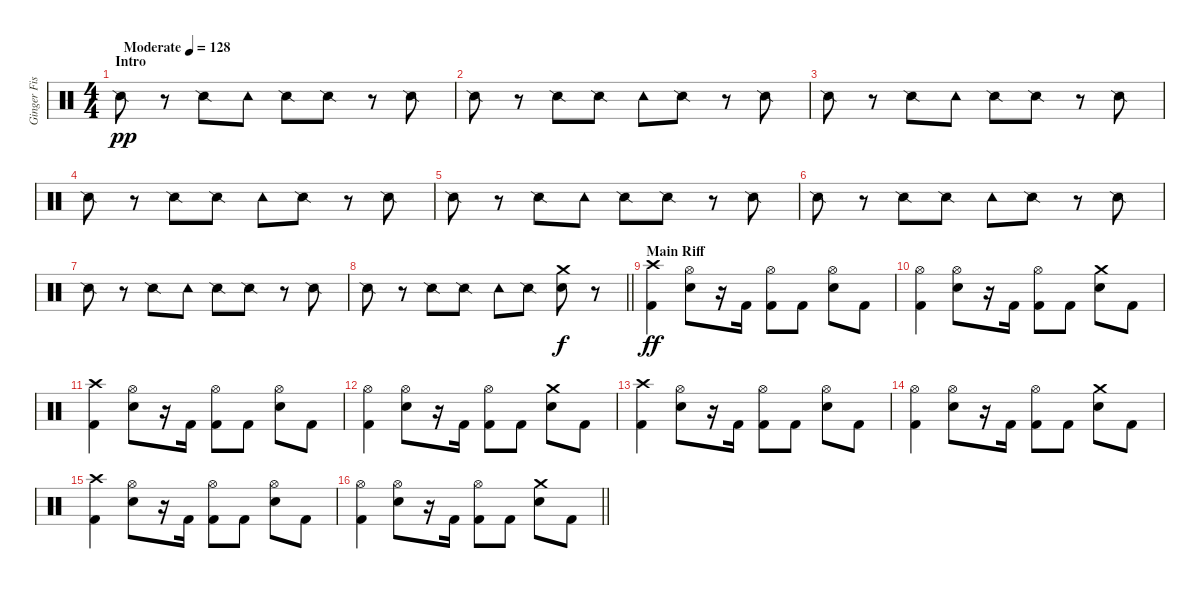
\track ("Ginger Fish" "Ginger Fis") {instrument percussion}
\staff {score}
\articulation defaults
\ts (4 4)
\section ("" "Intro")
\tempo (128 "Moderate")
\clef neutral
\ks c "Snare (side stick) 2".8{dy pp}
r.8 "Snare (side stick) 2".8 "Tambourine (hit)".8 "Snare (side stick) 2".8 "Snare (side stick) 2".8 r.8 "Snare (side stick) 2".8 |
"Snare (side stick) 2".8 r.8 "Snare (side stick) 2".8 "Snare (side stick) 2".8 "Tambourine (hit)".8 "Snare (side stick) 2".8 r.8 "Snare (side stick) 2".8 |
"Snare (side stick) 2".8 r.8 "Snare (side stick) 2".8 "Tambourine (hit)".8 "Snare (side stick) 2".8 "Snare (side stick) 2".8 r.8 "Snare (side stick) 2".8 |
"Snare (side stick) 2".8 r.8 "Snare (side stick) 2".8 "Snare (side stick) 2".8 "Tambourine (hit)".8 "Snare (side stick) 2".8 r.8 "Snare (side stick) 2".8 |
"Snare (side stick) 2".8 r.8 "Snare (side stick) 2".8 "Tambourine (hit)".8 "Snare (side stick) 2".8 "Snare (side stick) 2".8 r.8 "Snare (side stick) 2".8 |
"Snare (side stick) 2".8 r.8 "Snare (side stick) 2".8 "Snare (side stick) 2".8 "Tambourine (hit)".8 "Snare (side stick) 2".8 r.8 "Snare (side stick) 2".8 |
"Snare (side stick) 2".8 r.8 "Snare (side stick) 2".8 "Tambourine (hit)".8 "Snare (side stick) 2".8 "Snare (side stick) 2".8 r.8 "Snare (side stick) 2".8 |
\barLineRight lightlight "Snare (side stick) 2".8
r.8 "Snare (side stick) 2".8 "Snare (side stick) 2".8 "Tambourine (hit)".8 "Snare (side stick) 2".8 ("Crash medium (hit)" "Electric Snare (hit)").8{dy f} r.8 |
\section ("" "Main Riff")
("Crash high (hit)" "Kick (hit) 2").4{dy ff} ("Hi-Hat (open)" "Electric Snare (hit)").8 r.16 "Kick (hit) 2".16 ("Hi-Hat (open)" "Kick (hit) 2").8 "Kick (hit) 2".8 ("Hi-Hat (open)" "Electric Snare (hit)").8 "Kick (hit) 2".8 |
("Hi-Hat (open)" "Kick (hit) 2").4 ("Hi-Hat (open)" "Electric Snare (hit)").8 r.16 "Kick (hit) 2".16 ("Hi-Hat (open)" "Kick (hit) 2").8 "Kick (hit) 2".8 ("Crash medium (hit)" "Electric Snare (hit)").8 "Kick (hit) 2".8 |
("Crash high (hit)" "Kick (hit) 2").4 ("Hi-Hat (open)" "Electric Snare (hit)").8 r.16 "Kick (hit) 2".16 ("Hi-Hat (open)" "Kick (hit) 2").8 "Kick (hit) 2".8 ("Hi-Hat (open)" "Electric Snare (hit)").8 "Kick (hit) 2".8 |
("Hi-Hat (open)" "Kick (hit) 2").4 ("Hi-Hat (open)" "Electric Snare (hit)").8 r.16 "Kick (hit) 2".16 ("Hi-Hat (open)" "Kick (hit) 2").8 "Kick (hit) 2".8 ("Crash medium (hit)" "Electric Snare (hit)").8 "Kick (hit) 2".8 |
("Crash high (hit)" "Kick (hit) 2").4 ("Hi-Hat (open)" "Electric Snare (hit)").8 r.16 "Kick (hit) 2".16 ("Hi-Hat (open)" "Kick (hit) 2").8 "Kick (hit) 2".8 ("Hi-Hat (open)" "Electric Snare (hit)").8 "Kick (hit) 2".8 |
("Hi-Hat (open)" "Kick (hit) 2").4 ("Hi-Hat (open)" "Electric Snare (hit)").8 r.16 "Kick (hit) 2".16 ("Hi-Hat (open)" "Kick (hit) 2").8 "Kick (hit) 2".8 ("Crash medium (hit)" "Electric Snare (hit)").8 "Kick (hit) 2".8 |
("Crash high (hit)" "Kick (hit) 2").4 ("Hi-Hat (open)" "Electric Snare (hit)").8 r.16 "Kick (hit) 2".16 ("Hi-Hat (open)" "Kick (hit) 2").8 "Kick (hit) 2".8 ("Hi-Hat (open)" "Electric Snare (hit)").8 "Kick (hit) 2".8 |
\barLineRight lightlight
("Hi-Hat (open)" "Kick (hit) 2").4 ("Hi-Hat (open)" "Electric Snare (hit)").8 r.16 "Kick (hit) 2".16 ("Hi-Hat (open)" "Kick (hit) 2").8 "Kick (hit) 2".8 ("Crash medium (hit)" "Electric Snare (hit)").8 "Kick (hit) 2".8
